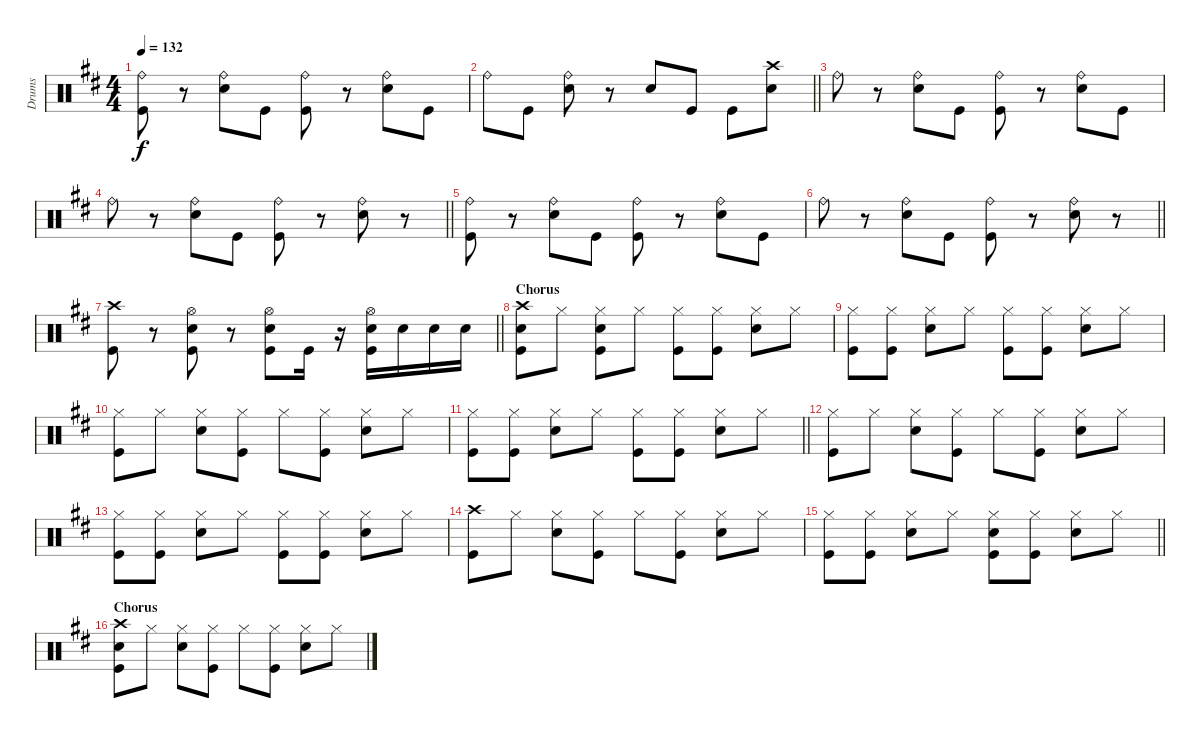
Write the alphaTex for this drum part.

\track ("Drums" "Drums") {instrument percussion}
\staff {score}
\articulation defaults
\ts (4 4)
\tempo 132
\clef neutral
\ks d
("Ride (bell)" "Kick (hit)").8{dy f} r.8 ("Ride (bell)" "Electric Snare (hit)").8 "Kick (hit)".8 ("Ride (bell)" "Kick (hit)").8 r.8 ("Ride (bell)" "Electric Snare (hit)").8 "Kick (hit)".8 |
\barLineRight lightlight "Ride (bell)".8 "Kick (hit)".8
("Ride (bell)" "Electric Snare (hit)").8 r.8 "Electric Snare (hit)".8 "Kick (hit)".8 "Kick (hit)".8 ("Crash high (hit)" "Electric Snare (hit)").8 |
"Ride (bell)".8 r.8 ("Ride (bell)" "Electric Snare (hit)").8 "Kick (hit)".8 ("Ride (bell)" "Kick (hit)").8 r.8 ("Ride (bell)" "Electric Snare (hit)").8 "Kick (hit)".8 |
\barLineRight lightlight "Ride (bell)".8
r.8 ("Ride (bell)" "Electric Snare (hit)").8 "Kick (hit)".8 ("Ride (bell)" "Kick (hit)").8 r.8 ("Ride (bell)" "Electric Snare (hit)").8 r.8 |
("Ride (bell)" "Kick (hit)").8 r.8 ("Ride (bell)" "Electric Snare (hit)").8 "Kick (hit)".8 ("Ride (bell)" "Kick (hit)").8 r.8 ("Ride (bell)" "Electric Snare (hit)").8 "Kick (hit)".8 |
\barLineRight lightlight "Ride (bell)".8
r.8 ("Ride (bell)" "Electric Snare (hit)").8 "Kick (hit)".8 ("Ride (bell)" "Kick (hit)").8 r.8 ("Ride (bell)" "Electric Snare (hit)").8 r.8 |
\barLineRight lightlight
("Crash high (hit)" "Kick (hit)").8 r.8 ("Hi-Hat (open)" "Electric Snare (hit)" "Kick (hit)").8 r.8 ("Hi-Hat (open)" "Electric Snare (hit)" "Kick (hit)").8 "Kick (hit)".16 r.16 ("Hi-Hat (open)" "Electric Snare (hit)" "Kick (hit)").16 "Electric Snare (hit)".16 "Electric Snare (hit)".16 "Electric Snare (hit)".16 |
\section ("" "Chorus")
("Crash high (hit)" "Electric Snare (hit)" "Kick (hit)").8 "Hi-Hat (closed)".8 ("Hi-Hat (closed)" "Electric Snare (hit)" "Kick (hit)").8 "Hi-Hat (closed)".8 ("Hi-Hat (closed)" "Kick (hit)").8 ("Hi-Hat (closed)" "Kick (hit)").8 ("Hi-Hat (closed)" "Electric Snare (hit)").8 "Hi-Hat (closed)".8 |
("Hi-Hat (closed)" "Kick (hit)").8 ("Hi-Hat (closed)" "Kick (hit)").8 ("Hi-Hat (closed)" "Electric Snare (hit)").8 "Hi-Hat (closed)".8 ("Hi-Hat (closed)" "Kick (hit)").8 ("Hi-Hat (closed)" "Kick (hit)").8 ("Hi-Hat (closed)" "Electric Snare (hit)").8 "Hi-Hat (closed)".8 |
("Hi-Hat (closed)" "Kick (hit)").8 "Hi-Hat (closed)".8 ("Hi-Hat (closed)" "Electric Snare (hit)").8 ("Hi-Hat (closed)" "Kick (hit)").8 "Hi-Hat (closed)".8 ("Hi-Hat (closed)" "Kick (hit)").8 ("Hi-Hat (closed)" "Electric Snare (hit)").8 "Hi-Hat (closed)".8 |
\barLineRight lightlight
("Hi-Hat (closed)" "Kick (hit)").8 ("Hi-Hat (closed)" "Kick (hit)").8 ("Hi-Hat (closed)" "Electric Snare (hit)").8 "Hi-Hat (closed)".8 ("Hi-Hat (closed)" "Kick (hit)").8 ("Hi-Hat (closed)" "Kick (hit)").8 ("Hi-Hat (closed)" "Electric Snare (hit)").8 "Hi-Hat (closed)".8 |
("Hi-Hat (closed)" "Kick (hit)").8 "Hi-Hat (closed)".8 ("Hi-Hat (closed)" "Electric Snare (hit)").8 ("Hi-Hat (closed)" "Kick (hit)").8 "Hi-Hat (closed)".8 ("Hi-Hat (closed)" "Kick (hit)").8 ("Hi-Hat (closed)" "Electric Snare (hit)").8 "Hi-Hat (closed)".8 |
("Hi-Hat (closed)" "Kick (hit)").8 ("Hi-Hat (closed)" "Kick (hit)").8 ("Hi-Hat (closed)" "Electric Snare (hit)").8 "Hi-Hat (closed)".8 ("Hi-Hat (closed)" "Kick (hit)").8 ("Hi-Hat (closed)" "Kick (hit)").8 ("Hi-Hat (closed)" "Electric Snare (hit)").8 "Hi-Hat (closed)".8 |
("Crash high (hit)" "Kick (hit)").8 "Hi-Hat (closed)".8 ("Hi-Hat (closed)" "Electric Snare (hit)").8 ("Hi-Hat (closed)" "Kick (hit)").8 "Hi-Hat (closed)".8 ("Hi-Hat (closed)" "Kick (hit)").8 ("Hi-Hat (closed)" "Electric Snare (hit)").8 "Hi-Hat (closed)".8 |
\barLineRight lightlight
("Hi-Hat (closed)" "Kick (hit)").8 ("Hi-Hat (closed)" "Kick (hit)").8 ("Hi-Hat (closed)" "Electric Snare (hit)").8 "Hi-Hat (closed)".8 ("Hi-Hat (closed)" "Electric Snare (hit)" "Kick (hit)").8 ("Hi-Hat (closed)" "Kick (hit)").8 ("Hi-Hat (closed)" "Electric Snare (hit)").8 "Hi-Hat (closed)".8 |
\section ("" "Chorus")
("Crash high (hit)" "Electric Snare (hit)" "Kick (hit)").8 "Hi-Hat (closed)".8 ("Hi-Hat (closed)" "Electric Snare (hit)").8 ("Hi-Hat (closed)" "Kick (hit)").8 "Hi-Hat (closed)".8 ("Hi-Hat (closed)" "Kick (hit)").8 ("Hi-Hat (closed)" "Electric Snare (hit)").8 "Hi-Hat (closed)".8
